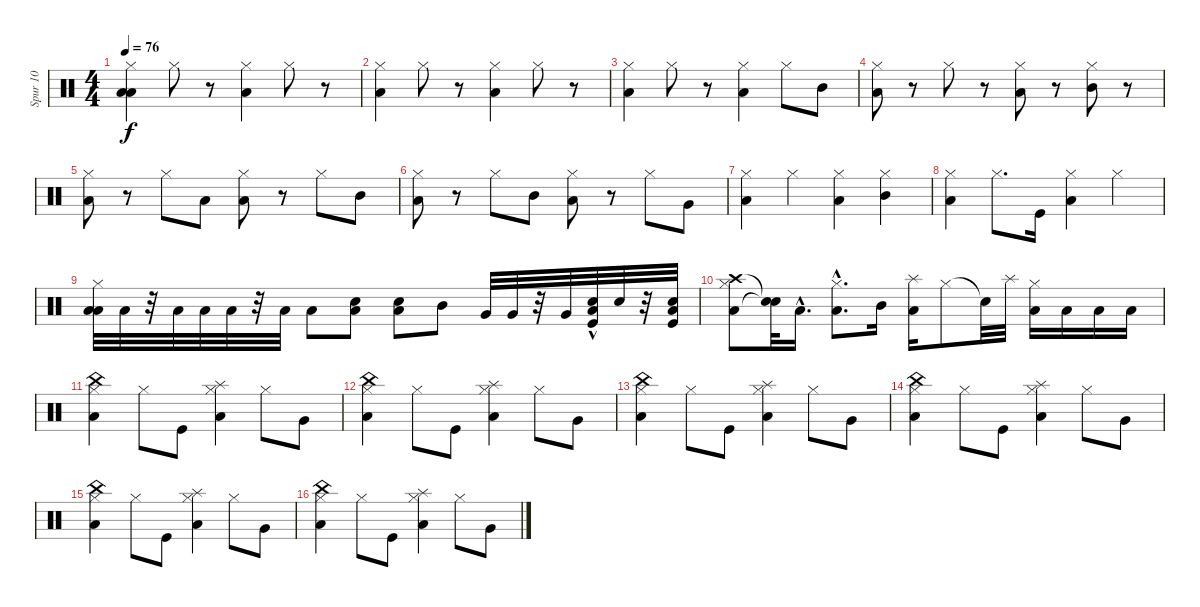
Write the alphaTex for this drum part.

\track ("Spur 10" "Spur 10") {instrument percussion}
\staff {score}
\articulation defaults
\ts (4 4)
\tempo 76
\clef neutral
\ks c
("Hi-Hat (closed)" "Low Floor Tom (hit)" "Low Floor Tom (hit)").4{dy f} "Hi-Hat (closed)".8 r.8 ("Hi-Hat (closed)" "Low Floor Tom (hit)").4 "Hi-Hat (closed)".8 r.8 |
("Hi-Hat (closed)" "Low Floor Tom (hit)").4 "Hi-Hat (closed)".8 r.8 ("Hi-Hat (closed)" "Low Floor Tom (hit)").4 "Hi-Hat (closed)".8 r.8 |
("Hi-Hat (closed)" "Low Floor Tom (hit)").4 "Hi-Hat (closed)".8 r.8 ("Hi-Hat (closed)" "Low Floor Tom (hit)").4 "Hi-Hat (closed)".8 "Mid Tom (hit)".8 |
("Hi-Hat (closed)" "Low Floor Tom (hit)").8 r.8 "Hi-Hat (closed)".8 r.8 ("Hi-Hat (closed)" "Low Floor Tom (hit)").8 r.8 ("Hi-Hat (closed)" "Mid Tom (hit)").8 r.8 |
("Hi-Hat (closed)" "Low Floor Tom (hit)").8 r.8 "Hi-Hat (closed)".8 "Low Floor Tom (hit)".8 ("Hi-Hat (closed)" "Low Floor Tom (hit)").8 r.8 "Hi-Hat (closed)".8 "Mid Tom (hit)".8 |
("Hi-Hat (closed)" "Low Floor Tom (hit)").8 r.8 "Hi-Hat (closed)".8 "Mid Tom (hit)".8 ("Hi-Hat (closed)" "Low Floor Tom (hit)").8 r.8 "Hi-Hat (closed)".8 "Very Low Tom (hit)".8 |
("Hi-Hat (closed)" "Low Floor Tom (hit)").4 "Hi-Hat (closed)".4 ("Hi-Hat (closed)" "Low Floor Tom (hit)").4 ("Hi-Hat (closed)" "Mid Tom (hit)").4 |
("Hi-Hat (closed)" "Low Floor Tom (hit)").4 "Hi-Hat (closed)".8{d} "Kick (hit)".16 ("Hi-Hat (closed)" "Low Floor Tom (hit)").4 "Hi-Hat (closed)".4 |
("Low Floor Tom (hit)" "Low Tom (hit)" "Hi-Hat (closed)").32 "Low Tom (hit)".32 r.32 "Low Tom (hit)".32 "Low Tom (hit)".32 "Low Tom (hit)".32 r.32 "Low Tom (hit)".32 "Low Floor Tom (hit)".8 ("Low Floor Tom (hit)" "Snare (hit) 2").8 ("Low Floor Tom (hit)" "Snare (hit) 2").8 "Mid Tom (hit)".8 "Very Low Tom (hit)".32 "Very Low Tom (hit)".32 r.32 "Very Low Tom (hit)".32 ("Snare (hit) 2" "Low Floor Tom (hit)"{hac} "Kick (hit)"{hac}).32 "Snare (hit) 2".32 r.32 ("Snare (hit) 2" "Low Floor Tom (hit)" "Kick (hit)").32 |
("Low Floor Tom (hit)" "Crash high (hit)" "Hi-Hat (closed)").8 ("Snare (hit)"{t} "Snare (hit)"{t}).32 "Low Tom (hit)"{hac}.16{d} ("Low Floor Tom (hit)"{hac} "Hi-Hat (closed)").8{d} "Mid Tom (hit)".16 ("Low Floor Tom (hit)" "Splash (hit)").16 "Hi-Hat (closed)".8 "Snare (hit)"{t}.32 "Splash (hit)".32 ("Low Tom (hit)" "Hi-Hat (closed)").16 "Low Tom (hit)".16 "Low Floor Tom (hit)".16 "Low Floor Tom (hit)".16 |
("Hi-Hat (closed)" "China (hit)" "Low Floor Tom (hit)").4 "Hi-Hat (closed)".8 "Kick (hit)".8 ("Hi-Hat (closed)" "Splash (hit)" "Low Floor Tom (hit)").4 "Hi-Hat (closed)".8 "Very Low Tom (hit)".8 |
("Hi-Hat (closed)" "China (hit)" "Low Floor Tom (hit)").4 "Hi-Hat (closed)".8 "Kick (hit)".8 ("Hi-Hat (closed)" "Splash (hit)" "Low Floor Tom (hit)").4 "Hi-Hat (closed)".8 "Very Low Tom (hit)".8 |
("Hi-Hat (closed)" "China (hit)" "Low Floor Tom (hit)").4 "Hi-Hat (closed)".8 "Kick (hit)".8 ("Hi-Hat (closed)" "Splash (hit)" "Low Floor Tom (hit)").4 "Hi-Hat (closed)".8 "Very Low Tom (hit)".8 |
("Hi-Hat (closed)" "China (hit)" "Low Floor Tom (hit)").4 "Hi-Hat (closed)".8 "Kick (hit)".8 ("Hi-Hat (closed)" "Splash (hit)" "Low Floor Tom (hit)").4 "Hi-Hat (closed)".8 "Very Low Tom (hit)".8 |
("Hi-Hat (closed)" "China (hit)" "Low Floor Tom (hit)").4 "Hi-Hat (closed)".8 "Kick (hit)".8 ("Hi-Hat (closed)" "Splash (hit)" "Low Floor Tom (hit)").4 "Hi-Hat (closed)".8 "Very Low Tom (hit)".8 |
("Hi-Hat (closed)" "China (hit)" "Low Floor Tom (hit)").4 "Hi-Hat (closed)".8 "Kick (hit)".8 ("Hi-Hat (closed)" "Splash (hit)" "Low Floor Tom (hit)").4 "Hi-Hat (closed)".8 "Very Low Tom (hit)".8
